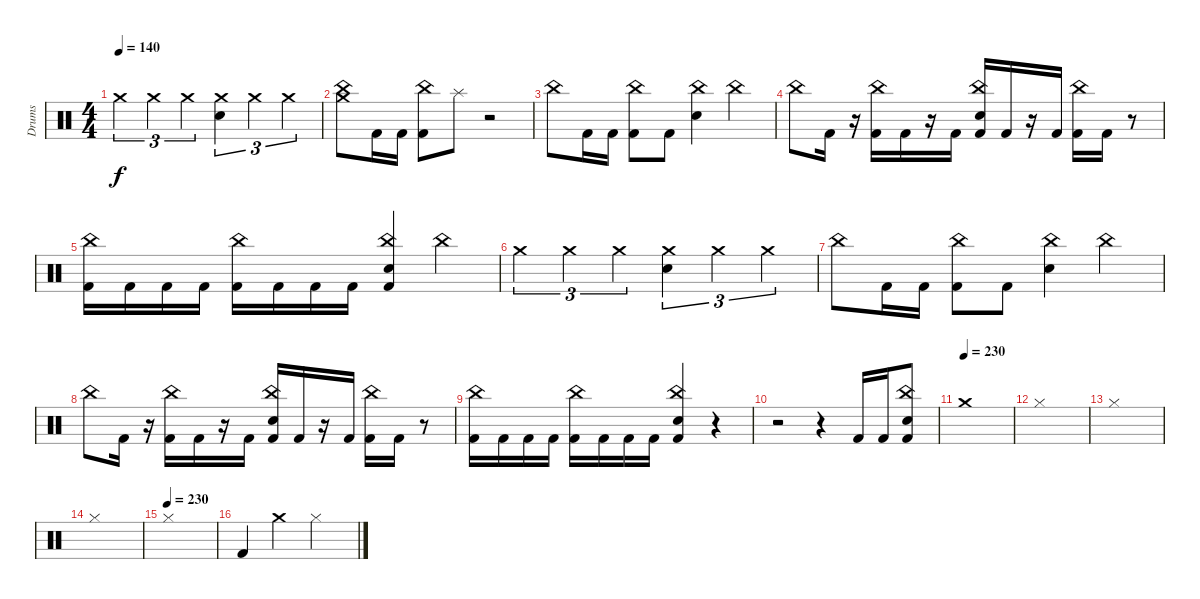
\track ("Drums" "Drums") {instrument percussion}
\staff {score}
\articulation defaults
\ts (4 4)
\tempo 140
\clef neutral
\ks c "Crash medium (hit)".4{tu (3 2) dy f} "Crash medium (hit)".4{tu (3 2)} "Crash medium (hit)".4{tu (3 2)}
("Snare (hit) 2" "Crash medium (hit)").4{tu (3 2)} "Crash medium (hit)".4{tu (3 2)} "Crash medium (hit)".4{tu (3 2)} |
("China (hit)" "Crash medium (hit)").8 "Kick (hit) 2".16 "Kick (hit) 2".16 ("China (hit)" "Kick (hit) 2").8 "Splash (hit)".8 r.2 |
"China (hit)".8 "Kick (hit) 2".16 "Kick (hit) 2".16 ("China (hit)" "Kick (hit) 2").8 "Kick (hit) 2".8 ("Snare (hit) 2" "China (hit)").4 "China (hit)".4 |
"China (hit)".8 "Kick (hit) 2".16 r.16 ("China (hit)" "Kick (hit) 2").16 "Kick (hit) 2".16 r.16 "Kick (hit) 2".16 ("Snare (hit) 2" "China (hit)" "Kick (hit) 2").16 "Kick (hit) 2".16 r.16 "Kick (hit) 2".16 ("China (hit)" "Kick (hit) 2").16 "Kick (hit) 2".16 r.8 |
("China (hit)" "Kick (hit) 2").16 "Kick (hit) 2".16 "Kick (hit) 2".16 "Kick (hit) 2".16 ("China (hit)" "Kick (hit) 2").16 "Kick (hit) 2".16 "Kick (hit) 2".16 "Kick (hit) 2".16 ("China (hit)" "Snare (hit) 2" "Kick (hit) 2").4 "China (hit)".4 |
"Crash medium (hit)".4{tu (3 2)} "Crash medium (hit)".4{tu (3 2)} "Crash medium (hit)".4{tu (3 2)} ("Snare (hit) 2" "Crash medium (hit)").4{tu (3 2)} "Crash medium (hit)".4{tu (3 2)} "Crash medium (hit)".4{tu (3 2)} |
"China (hit)".8 "Kick (hit) 2".16 "Kick (hit) 2".16 ("China (hit)" "Kick (hit) 2").8 "Kick (hit) 2".8 ("Snare (hit) 2" "China (hit)").4 "China (hit)".4 |
"China (hit)".8 "Kick (hit) 2".16 r.16 ("China (hit)" "Kick (hit) 2").16 "Kick (hit) 2".16 r.16 "Kick (hit) 2".16 ("Snare (hit) 2" "China (hit)" "Kick (hit) 2").16 "Kick (hit) 2".16 r.16 "Kick (hit) 2".16 ("China (hit)" "Kick (hit) 2").16 "Kick (hit) 2".16 r.8 |
("China (hit)" "Kick (hit) 2").16 "Kick (hit) 2".16 "Kick (hit) 2".16 "Kick (hit) 2".16 ("China (hit)" "Kick (hit) 2").16 "Kick (hit) 2".16 "Kick (hit) 2".16 "Kick (hit) 2".16 ("China (hit)" "Snare (hit) 2" "Kick (hit) 2").4 r.4 |
r.2 r.4 "Kick (hit) 2".16 "Kick (hit) 2".16 ("Kick (hit) 2" "Snare (hit) 2" "China (hit)").8 |
\tempo (230)
"Crash medium (hit)".1 |
"Hi-Hat (closed)".1 |
"Hi-Hat (closed)".1 |
"Hi-Hat (closed)".1 |
\tempo (230)
"Hi-Hat (closed)".1 |
"Kick (hit) 2".4 "Crash medium (hit)".4 "Hi-Hat (closed)".2
